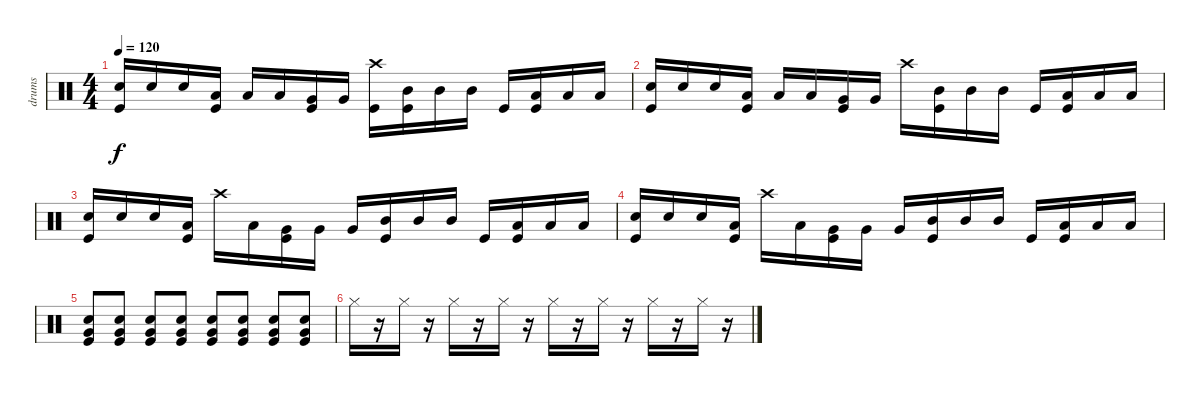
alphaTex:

\track ("drums" "drums") {instrument percussion}
\staff {score}
\articulation defaults
\ts (4 4)
\tempo 120
\clef neutral
\ks c
("Electric Snare (hit)" "Kick (hit)").16{dy f} "Electric Snare (hit)".16 "Electric Snare (hit)".16 ("Low Tom (hit)" "Kick (hit)").16 "Low Tom (hit)".16 "Low Tom (hit)".16 ("Very Low Tom (hit)" "Kick (hit)").16 "Very Low Tom (hit)".16 ("Crash high (hit)" "Kick (hit)").16 ("Mid Tom (hit)" "Kick (hit)").16 "Mid Tom (hit)".16 "Mid Tom (hit)".16 "Kick (hit)".16 ("Low Tom (hit)" "Kick (hit)").16 "Low Tom (hit)".16 "Low Tom (hit)".16 |
("Electric Snare (hit)" "Kick (hit)").16 "Electric Snare (hit)".16 "Electric Snare (hit)".16 ("Low Tom (hit)" "Kick (hit)").16 "Low Tom (hit)".16 "Low Tom (hit)".16 ("Very Low Tom (hit)" "Kick (hit)").16 "Very Low Tom (hit)".16 "Crash high (hit)".16 ("Mid Tom (hit)" "Kick (hit)").16 "Mid Tom (hit)".16 "Mid Tom (hit)".16 "Kick (hit)".16 ("Low Tom (hit)" "Kick (hit)").16 "Low Tom (hit)".16 "Low Tom (hit)".16 |
("Electric Snare (hit)" "Kick (hit)").16 "Electric Snare (hit)".16 "Electric Snare (hit)".16 ("Low Tom (hit)" "Kick (hit)").16 "Crash high (hit)".16 "Low Tom (hit)".16 ("Very Low Tom (hit)" "Kick (hit)").16 "Very Low Tom (hit)".16 "Very Low Tom (hit)".16 ("Mid Tom (hit)" "Kick (hit)").16 "Mid Tom (hit)".16 "Mid Tom (hit)".16 "Kick (hit)".16 ("Low Tom (hit)" "Kick (hit)").16 "Low Tom (hit)".16 "Low Tom (hit)".16 |
("Electric Snare (hit)" "Kick (hit)").16 "Electric Snare (hit)".16 "Electric Snare (hit)".16 ("Low Tom (hit)" "Kick (hit)").16 "Crash high (hit)".16 "Low Tom (hit)".16 ("Very Low Tom (hit)" "Kick (hit)").16 "Very Low Tom (hit)".16 "Very Low Tom (hit)".16 ("Mid Tom (hit)" "Kick (hit)").16 "Mid Tom (hit)".16 "Mid Tom (hit)".16 "Kick (hit)".16 ("Low Tom (hit)" "Kick (hit)").16 "Low Tom (hit)".16 "Low Tom (hit)".16 |
("Very Low Tom (hit)" "Electric Snare (hit)" "Kick (hit)").8 ("Very Low Tom (hit)" "Electric Snare (hit)" "Kick (hit)").8 ("Very Low Tom (hit)" "Electric Snare (hit)" "Kick (hit)").8 ("Very Low Tom (hit)" "Electric Snare (hit)" "Kick (hit)").8 ("Very Low Tom (hit)" "Electric Snare (hit)" "Kick (hit)").8 ("Very Low Tom (hit)" "Electric Snare (hit)" "Kick (hit)").8 ("Very Low Tom (hit)" "Electric Snare (hit)" "Kick (hit)").8 ("Very Low Tom (hit)" "Electric Snare (hit)" "Kick (hit)").8 |
"Hi-Hat (closed)".16 r.16 "Hi-Hat (closed)".16 r.16 "Hi-Hat (closed)".16 r.16 "Hi-Hat (closed)".16 r.16 "Hi-Hat (closed)".16 r.16 "Hi-Hat (closed)".16 r.16 "Hi-Hat (closed)".16 r.16 "Hi-Hat (closed)".16 r.16
